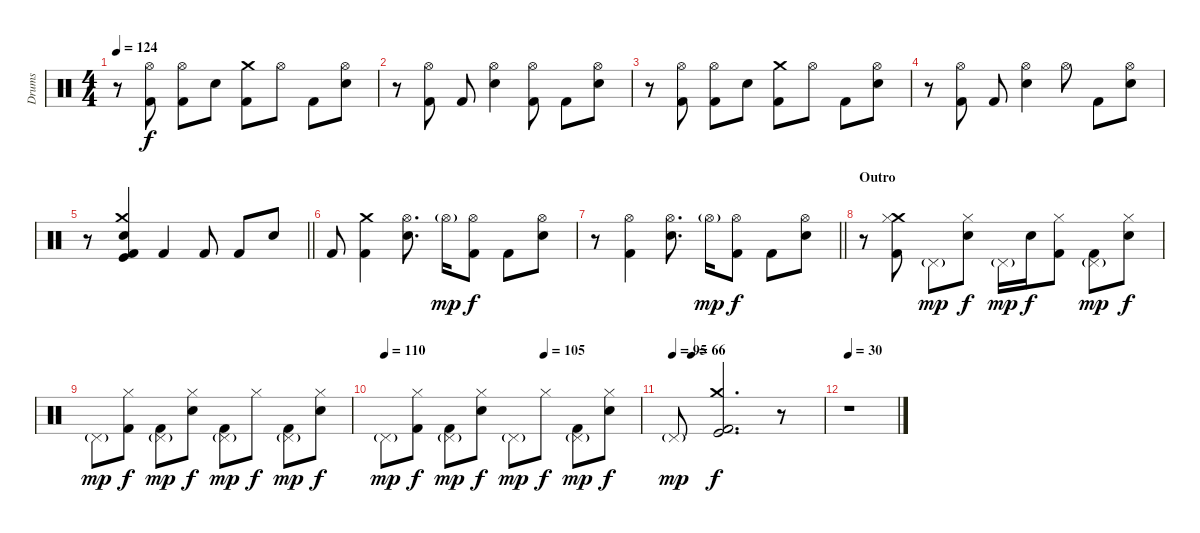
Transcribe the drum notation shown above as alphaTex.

\track ("Drums" "Drums") {instrument percussion}
\staff {score}
\articulation defaults
\ts (4 4)
\tempo 124
\clef neutral
\ks c
r.8{dy f} ("Hi-Hat (open)" "Kick (hit) 2").8 ("Hi-Hat (open)" "Kick (hit) 2").8 "Electric Snare (hit)".8 ("Crash medium (hit)" "Kick (hit) 2").8 "Hi-Hat (open)".8 "Kick (hit) 2".8 ("Electric Snare (hit)" "Hi-Hat (open)").8 |
r.8 ("Hi-Hat (open)" "Kick (hit) 2").8 "Kick (hit) 2".8 ("Electric Snare (hit)" "Hi-Hat (open)").4 ("Hi-Hat (open)" "Kick (hit) 2").8 "Kick (hit) 2".8 ("Electric Snare (hit)" "Hi-Hat (open)").8 |
r.8 ("Hi-Hat (open)" "Kick (hit) 2").8 ("Hi-Hat (open)" "Kick (hit) 2").8 "Electric Snare (hit)".8 ("Crash medium (hit)" "Kick (hit) 2").8 "Hi-Hat (open)".8 "Kick (hit) 2".8 ("Electric Snare (hit)" "Hi-Hat (open)").8 |
r.8 ("Hi-Hat (open)" "Kick (hit) 2").8 "Kick (hit) 2".8 ("Electric Snare (hit)" "Hi-Hat (open)").4 "Hi-Hat (open)".8 "Kick (hit) 2".8 ("Electric Snare (hit)" "Hi-Hat (open)").8 |
\barLineRight lightlight
r.8 ("Kick (hit)" "Crash medium (hit)" "Kick (hit) 2" "Electric Snare (hit)").4 "Kick (hit) 2".4 "Kick (hit) 2".8 "Kick (hit) 2".8 "Electric Snare (hit)".8 |
"Kick (hit) 2".8 ("Crash medium (hit)" "Kick (hit) 2").4 ("Electric Snare (hit)" "Hi-Hat (open)").8{d} "Hi-Hat (open)"{g}.16{dy mp} ("Kick (hit) 2" "Hi-Hat (open)").8{dy f} "Kick (hit) 2".8 ("Electric Snare (hit)" "Hi-Hat (open)").8 |
\barLineRight lightlight
r.8 ("Kick (hit) 2" "Hi-Hat (open)").4 ("Electric Snare (hit)" "Hi-Hat (open)").8{d} "Hi-Hat (open)"{g}.16{dy mp} ("Kick (hit) 2" "Hi-Hat (open)").8{dy f} "Kick (hit) 2".8 ("Electric Snare (hit)" "Hi-Hat (open)").8 |
\section ("" "Outro")
r.8 ("Crash medium (hit)" "Kick (hit) 2" "Hi-Hat (closed)").8 "Pedal Hi-Hat (hit)"{g}.8{dy mp} ("Electric Snare (hit)" "Hi-Hat (closed)").8{dy f} "Pedal Hi-Hat (hit)"{g}.16{dy mp} "Electric Snare (hit)".16{dy f} ("Kick (hit) 2" "Hi-Hat (closed)").8 ("Kick (hit) 2" "Pedal Hi-Hat (hit)"{g}).8{dy mp} ("Electric Snare (hit)" "Hi-Hat (closed)").8{dy f} |
"Pedal Hi-Hat (hit)"{g}.8{dy mp} ("Kick (hit) 2" "Hi-Hat (closed)").8{dy f} ("Kick (hit) 2" "Pedal Hi-Hat (hit)"{g}).8{dy mp} ("Electric Snare (hit)" "Hi-Hat (closed)").8{dy f} ("Kick (hit) 2" "Pedal Hi-Hat (hit)"{g}).8{dy mp} "Hi-Hat (closed)".8{dy f} ("Kick (hit) 2" "Pedal Hi-Hat (hit)"{g}).8{dy mp} ("Electric Snare (hit)" "Hi-Hat (closed)").8{dy f} |
\tempo 110
\tempo (105 0.625)
"Pedal Hi-Hat (hit)"{g}.8{dy mp} ("Kick (hit) 2" "Hi-Hat (closed)").8{dy f} ("Kick (hit) 2" "Pedal Hi-Hat (hit)"{g}).8{dy mp} ("Electric Snare (hit)" "Hi-Hat (closed)").8{dy f} "Pedal Hi-Hat (hit)"{g}.8{dy mp} "Hi-Hat (closed)".8{dy f} ("Kick (hit) 2" "Pedal Hi-Hat (hit)"{g}).8{dy mp} ("Electric Snare (hit)" "Hi-Hat (closed)").8{dy f} |
\tempo 95
\tempo (66 0.125)
"Pedal Hi-Hat (hit)"{g}.8{dy mp} ("Crash medium (hit)" "Kick (hit) 2" "Kick (hit)").2{d dy f} r.8 |
\tempo 30
r.1
